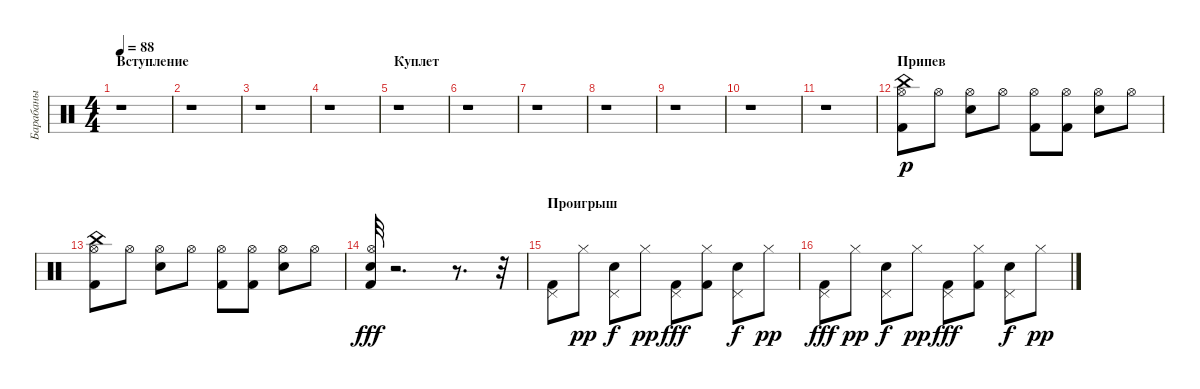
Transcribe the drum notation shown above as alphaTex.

\track ("Барабаны" "Барабаны") {instrument percussion}
\staff {score}
\articulation defaults
\ts (4 4)
\section ("" "Вступление")
\tempo 88
\clef neutral
\ks c
r.1{dy p} |
r.1 |
r.1 |
r.1 |
\section ("" "Куплет")
r.1 |
r.1 |
r.1 |
r.1 |
r.1 |
r.1 |
r.1 |
\section ("" "Припев")
("China (hit)" "Kick (hit) 2" "Hi-Hat (open)").8 "Hi-Hat (open)".8 ("Electric Snare (hit)" "Hi-Hat (open)").8 "Hi-Hat (open)".8 ("Kick (hit) 2" "Hi-Hat (open)").8 ("Kick (hit) 2" "Hi-Hat (open)").8 ("Electric Snare (hit)" "Hi-Hat (open)").8 "Hi-Hat (open)".8 |
("China (hit)" "Kick (hit) 2" "Hi-Hat (open)").8 "Hi-Hat (open)".8 ("Electric Snare (hit)" "Hi-Hat (open)").8 "Hi-Hat (open)".8 ("Kick (hit) 2" "Hi-Hat (open)").8 ("Kick (hit) 2" "Hi-Hat (open)").8 ("Electric Snare (hit)" "Hi-Hat (open)").8 "Hi-Hat (open)".8 |
("Electric Snare (hit)" "Kick (hit) 2" "Hi-Hat (open)").32{dy fff} r.2{d} r.8{d} r.32 |
\section ("" "Проигрыш")
("Pedal Hi-Hat (hit)" "Kick (hit) 2").8 "Hi-Hat (closed)".8{dy pp} ("Pedal Hi-Hat (hit)" "Electric Snare (hit)").8{dy f} "Hi-Hat (closed)".8{dy pp} ("Pedal Hi-Hat (hit)" "Kick (hit) 2").8{dy fff} ("Hi-Hat (closed)" "Kick (hit) 2").8 ("Pedal Hi-Hat (hit)" "Electric Snare (hit)").8{dy f} "Hi-Hat (closed)".8{dy pp} |
("Pedal Hi-Hat (hit)" "Kick (hit) 2").8{dy fff} "Hi-Hat (closed)".8{dy pp} ("Pedal Hi-Hat (hit)" "Electric Snare (hit)").8{dy f} "Hi-Hat (closed)".8{dy pp} ("Pedal Hi-Hat (hit)" "Kick (hit) 2").8{dy fff} ("Hi-Hat (closed)" "Kick (hit) 2").8 ("Pedal Hi-Hat (hit)" "Electric Snare (hit)").8{dy f} "Hi-Hat (closed)".8{dy pp}
